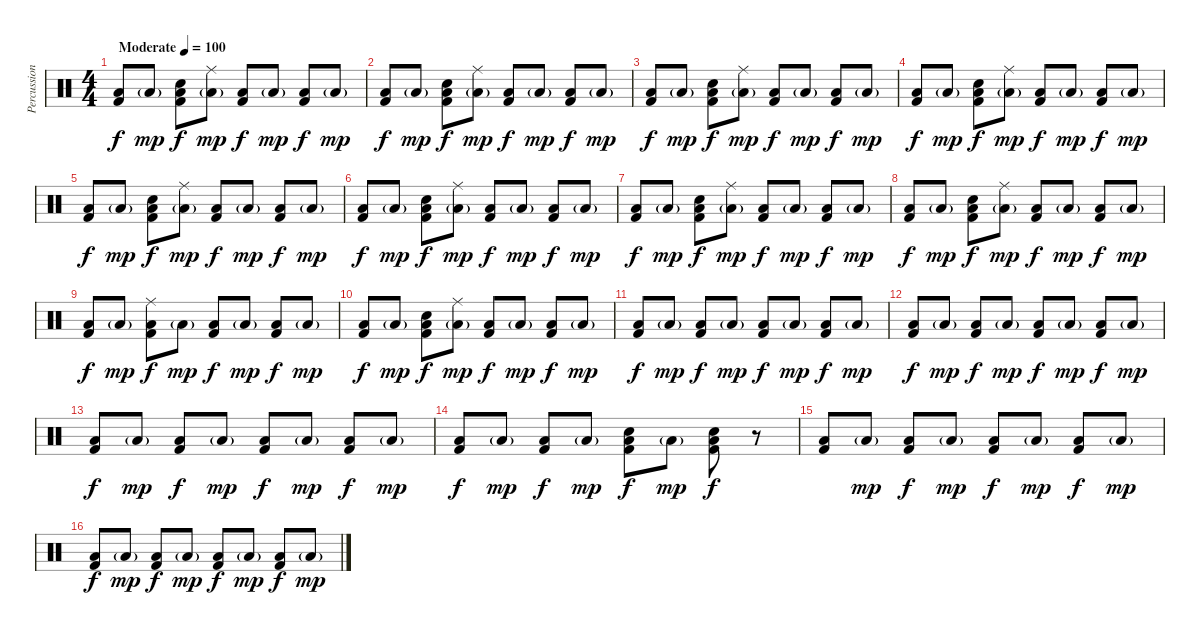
\track ("Percussion" "Percussion") {instrument percussion}
\staff {score}
\articulation defaults
\ts (4 4)
\tempo (100 "Moderate")
\clef neutral
\ks c
("Low Floor Tom (hit)" "Kick (hit) 2").8{dy f} "Low Floor Tom (hit)"{g}.8{dy mp} ("Snare (hit) 2" "Low Floor Tom (hit)" "Kick (hit) 2").8{dy f} ("Ride (middle)" "Low Floor Tom (hit)"{g}).8{dy mp} ("Low Floor Tom (hit)" "Kick (hit) 2").8{dy f} "Low Floor Tom (hit)"{g}.8{dy mp} ("Low Floor Tom (hit)" "Kick (hit) 2").8{dy f} "Low Floor Tom (hit)"{g}.8{dy mp} |
("Low Floor Tom (hit)" "Kick (hit) 2").8{dy f} "Low Floor Tom (hit)"{g}.8{dy mp} ("Snare (hit) 2" "Low Floor Tom (hit)" "Kick (hit) 2").8{dy f} ("Ride (middle)" "Low Floor Tom (hit)"{g}).8{dy mp} ("Low Floor Tom (hit)" "Kick (hit) 2").8{dy f} "Low Floor Tom (hit)"{g}.8{dy mp} ("Low Floor Tom (hit)" "Kick (hit) 2").8{dy f} "Low Floor Tom (hit)"{g}.8{dy mp} |
("Low Floor Tom (hit)" "Kick (hit) 2").8{dy f} "Low Floor Tom (hit)"{g}.8{dy mp} ("Snare (hit) 2" "Low Floor Tom (hit)" "Kick (hit) 2").8{dy f} ("Ride (middle)" "Low Floor Tom (hit)"{g}).8{dy mp} ("Low Floor Tom (hit)" "Kick (hit) 2").8{dy f} "Low Floor Tom (hit)"{g}.8{dy mp} ("Low Floor Tom (hit)" "Kick (hit) 2").8{dy f} "Low Floor Tom (hit)"{g}.8{dy mp} |
("Low Floor Tom (hit)" "Kick (hit) 2").8{dy f} "Low Floor Tom (hit)"{g}.8{dy mp} ("Snare (hit) 2" "Low Floor Tom (hit)" "Kick (hit) 2").8{dy f} ("Ride (middle)" "Low Floor Tom (hit)"{g}).8{dy mp} ("Low Floor Tom (hit)" "Kick (hit) 2").8{dy f} "Low Floor Tom (hit)"{g}.8{dy mp} ("Low Floor Tom (hit)" "Kick (hit) 2").8{dy f} "Low Floor Tom (hit)"{g}.8{dy mp} |
("Low Floor Tom (hit)" "Kick (hit) 2").8{dy f} "Low Floor Tom (hit)"{g}.8{dy mp} ("Snare (hit) 2" "Low Floor Tom (hit)" "Kick (hit) 2").8{dy f} ("Ride (middle)" "Low Floor Tom (hit)"{g}).8{dy mp} ("Low Floor Tom (hit)" "Kick (hit) 2").8{dy f} "Low Floor Tom (hit)"{g}.8{dy mp} ("Low Floor Tom (hit)" "Kick (hit) 2").8{dy f} "Low Floor Tom (hit)"{g}.8{dy mp} |
("Low Floor Tom (hit)" "Kick (hit) 2").8{dy f} "Low Floor Tom (hit)"{g}.8{dy mp} ("Snare (hit) 2" "Low Floor Tom (hit)" "Kick (hit) 2").8{dy f} ("Ride (middle)" "Low Floor Tom (hit)"{g}).8{dy mp} ("Low Floor Tom (hit)" "Kick (hit) 2").8{dy f} "Low Floor Tom (hit)"{g}.8{dy mp} ("Low Floor Tom (hit)" "Kick (hit) 2").8{dy f} "Low Floor Tom (hit)"{g}.8{dy mp} |
("Low Floor Tom (hit)" "Kick (hit) 2").8{dy f} "Low Floor Tom (hit)"{g}.8{dy mp} ("Snare (hit) 2" "Low Floor Tom (hit)" "Kick (hit) 2").8{dy f} ("Ride (middle)" "Low Floor Tom (hit)"{g}).8{dy mp} ("Low Floor Tom (hit)" "Kick (hit) 2").8{dy f} "Low Floor Tom (hit)"{g}.8{dy mp} ("Low Floor Tom (hit)" "Kick (hit) 2").8{dy f} "Low Floor Tom (hit)"{g}.8{dy mp} |
("Low Floor Tom (hit)" "Kick (hit) 2").8{dy f} "Low Floor Tom (hit)"{g}.8{dy mp} ("Snare (hit) 2" "Low Floor Tom (hit)" "Kick (hit) 2").8{dy f} ("Ride (middle)" "Low Floor Tom (hit)"{g}).8{dy mp} ("Low Floor Tom (hit)" "Kick (hit) 2").8{dy f} "Low Floor Tom (hit)"{g}.8{dy mp} ("Low Floor Tom (hit)" "Kick (hit) 2").8{dy f} "Low Floor Tom (hit)"{g}.8{dy mp} |
("Low Floor Tom (hit)" "Kick (hit) 2").8{dy f} "Low Floor Tom (hit)"{g}.8{dy mp} ("Ride (middle)" "Low Floor Tom (hit)" "Kick (hit) 2").8{dy f} "Low Floor Tom (hit)"{g}.8{dy mp} ("Low Floor Tom (hit)" "Kick (hit) 2").8{dy f} "Low Floor Tom (hit)"{g}.8{dy mp} ("Low Floor Tom (hit)" "Kick (hit) 2").8{dy f} "Low Floor Tom (hit)"{g}.8{dy mp} |
("Low Floor Tom (hit)" "Kick (hit) 2").8{dy f} "Low Floor Tom (hit)"{g}.8{dy mp} ("Snare (hit) 2" "Low Floor Tom (hit)" "Kick (hit) 2").8{dy f} ("Ride (middle)" "Low Floor Tom (hit)"{g}).8{dy mp} ("Low Floor Tom (hit)" "Kick (hit) 2").8{dy f} "Low Floor Tom (hit)"{g}.8{dy mp} ("Low Floor Tom (hit)" "Kick (hit) 2").8{dy f} "Low Floor Tom (hit)"{g}.8{dy mp} |
("Low Floor Tom (hit)" "Kick (hit) 2").8{dy f} "Low Floor Tom (hit)"{g}.8{dy mp} ("Low Floor Tom (hit)" "Kick (hit) 2").8{dy f} "Low Floor Tom (hit)"{g}.8{dy mp} ("Low Floor Tom (hit)" "Kick (hit) 2").8{dy f} "Low Floor Tom (hit)"{g}.8{dy mp} ("Low Floor Tom (hit)" "Kick (hit) 2").8{dy f} "Low Floor Tom (hit)"{g}.8{dy mp} |
("Low Floor Tom (hit)" "Kick (hit) 2").8{dy f} "Low Floor Tom (hit)"{g}.8{dy mp} ("Low Floor Tom (hit)" "Kick (hit) 2").8{dy f} "Low Floor Tom (hit)"{g}.8{dy mp} ("Low Floor Tom (hit)" "Kick (hit) 2").8{dy f} "Low Floor Tom (hit)"{g}.8{dy mp} ("Low Floor Tom (hit)" "Kick (hit) 2").8{dy f} "Low Floor Tom (hit)"{g}.8{dy mp} |
("Low Floor Tom (hit)" "Kick (hit) 2").8{dy f} "Low Floor Tom (hit)"{g}.8{dy mp} ("Low Floor Tom (hit)" "Kick (hit) 2").8{dy f} "Low Floor Tom (hit)"{g}.8{dy mp} ("Low Floor Tom (hit)" "Kick (hit) 2").8{dy f} "Low Floor Tom (hit)"{g}.8{dy mp} ("Low Floor Tom (hit)" "Kick (hit) 2").8{dy f} "Low Floor Tom (hit)"{g}.8{dy mp} |
("Low Floor Tom (hit)" "Kick (hit) 2").8{dy f} "Low Floor Tom (hit)"{g}.8{dy mp} ("Low Floor Tom (hit)" "Kick (hit) 2").8{dy f} "Low Floor Tom (hit)"{g}.8{dy mp} ("Snare (hit) 2" "Low Floor Tom (hit)" "Kick (hit) 2").8{dy f} "Low Floor Tom (hit)"{g}.8{dy mp} ("Snare (hit) 2" "Low Floor Tom (hit)" "Kick (hit) 2").8{dy f} r.8 |
("Low Floor Tom (hit)" "Kick (hit) 2").8 "Low Floor Tom (hit)"{g}.8{dy mp} ("Low Floor Tom (hit)" "Kick (hit) 2").8{dy f} "Low Floor Tom (hit)"{g}.8{dy mp} ("Low Floor Tom (hit)" "Kick (hit) 2").8{dy f} "Low Floor Tom (hit)"{g}.8{dy mp} ("Low Floor Tom (hit)" "Kick (hit) 2").8{dy f} "Low Floor Tom (hit)"{g}.8{dy mp} |
("Low Floor Tom (hit)" "Kick (hit) 2").8{dy f} "Low Floor Tom (hit)"{g}.8{dy mp} ("Low Floor Tom (hit)" "Kick (hit) 2").8{dy f} "Low Floor Tom (hit)"{g}.8{dy mp} ("Low Floor Tom (hit)" "Kick (hit) 2").8{dy f} "Low Floor Tom (hit)"{g}.8{dy mp} ("Low Floor Tom (hit)" "Kick (hit) 2").8{dy f} "Low Floor Tom (hit)"{g}.8{dy mp}
